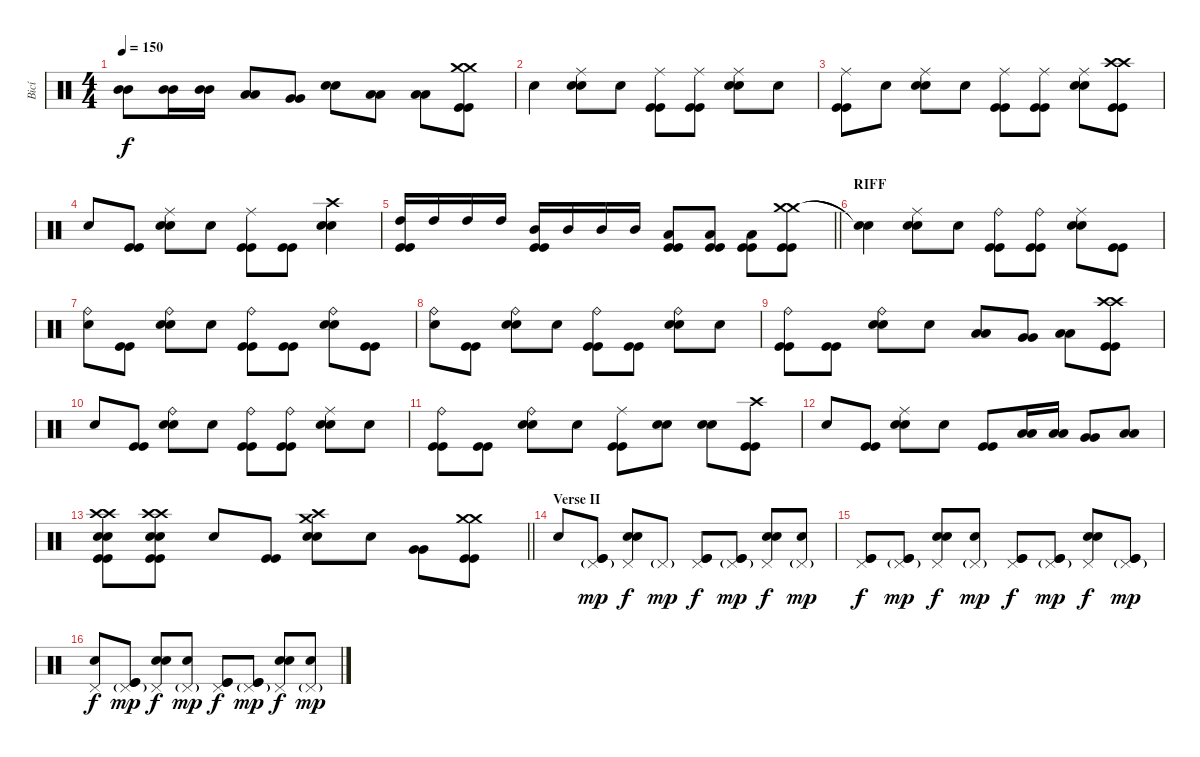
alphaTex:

\track ("Bicí" "Bicí") {instrument percussion}
\staff {score}
\articulation defaults
\ts (4 4)
\tempo 150
\clef neutral
\ks c
("Mid Tom (hit)" "Mid Tom (hit)").8{dy f} ("Mid Tom (hit)" "Mid Tom (hit)").16 ("Mid Tom (hit)" "Mid Tom (hit)").16 ("Low Tom (hit)" "Low Tom (hit)").8 ("Very Low Tom (hit)" "Very Low Tom (hit)").8 ("Electric Snare (hit)" "Electric Snare (hit)").8 ("Low Floor Tom (hit)" "Low Floor Tom (hit)").8 ("Low Floor Tom (hit)" "Low Floor Tom (hit)").8 ("Crash medium (hit)" "Crash medium (hit)" "Kick (hit)" "Kick (hit)").8 |
"Snare (hit)".4 ("Ride (middle)" "Electric Snare (hit)" "Electric Snare (hit)").8 "Snare (hit)".8 ("Ride (middle)" "Kick (hit)" "Kick (hit)").8 ("Ride (middle)" "Kick (hit)" "Kick (hit)").8 ("Ride (middle)" "Electric Snare (hit)" "Electric Snare (hit)").8 "Snare (hit)".8 |
("Ride (middle)" "Kick (hit)" "Kick (hit)").8 "Snare (hit)".8 ("Ride (middle)" "Electric Snare (hit)" "Electric Snare (hit)").8 "Snare (hit)".8 ("Ride (middle)" "Kick (hit)" "Kick (hit)").8 ("Ride (middle)" "Kick (hit)" "Kick (hit)").8 ("Ride (middle)" "Electric Snare (hit)" "Electric Snare (hit)").8 ("Crash high (hit)" "Crash high (hit)" "Kick (hit)" "Kick (hit)").8 |
"Snare (hit)".8 ("Kick (hit)" "Kick (hit)").8 ("Ride (middle)" "Electric Snare (hit)" "Electric Snare (hit)").8 "Snare (hit)".8 ("Ride (middle)" "Kick (hit)" "Kick (hit)").8 ("Kick (hit)" "Kick (hit)").8 ("Crash high (hit)" "Electric Snare (hit)" "Electric Snare (hit)").4 |
\barLineRight lightlight
("High Tom (hit)" "Kick (hit)" "Kick (hit)").16 "High Tom (hit)".16 "High Tom (hit)".16 "High Tom (hit)".16 ("Mid Tom (hit)" "Kick (hit)" "Kick (hit)").16 "Mid Tom (hit)".16 "Mid Tom (hit)".16 "Mid Tom (hit)".16 ("Low Tom (hit)" "Kick (hit)" "Kick (hit)").8 ("Low Tom (hit)" "Kick (hit)" "Kick (hit)").8 ("Low Tom (hit)" "Kick (hit)" "Kick (hit)").8 ("Crash medium (hit)" "Crash medium (hit)" "Kick (hit)" "Kick (hit)").8 |
\section ("" "RIFF")
("Snare (hit)"{t} "Snare (hit)"{t}).4 ("Ride (middle)" "Electric Snare (hit)" "Electric Snare (hit)").8 "Snare (hit)".8 ("Ride (bell)" "Kick (hit)" "Kick (hit)").8 ("Ride (bell)" "Kick (hit)" "Kick (hit)").8 ("Ride (middle)" "Electric Snare (hit)" "Electric Snare (hit)").8 ("Kick (hit)" "Kick (hit)").8 |
("Ride (bell)" "Snare (hit)").8 ("Kick (hit)" "Kick (hit)").8 ("Ride (bell)" "Electric Snare (hit)" "Electric Snare (hit)").8 "Snare (hit)".8 ("Ride (bell)" "Kick (hit)" "Kick (hit)").8 ("Kick (hit)" "Kick (hit)").8 ("Ride (bell)" "Electric Snare (hit)" "Electric Snare (hit)").8 ("Kick (hit)" "Kick (hit)").8 |
("Ride (bell)" "Snare (hit)").8 ("Kick (hit)" "Kick (hit)").8 ("Ride (bell)" "Electric Snare (hit)" "Electric Snare (hit)").8 "Snare (hit)".8 ("Ride (bell)" "Kick (hit)" "Kick (hit)").8 ("Kick (hit)" "Kick (hit)").8 ("Ride (bell)" "Electric Snare (hit)" "Electric Snare (hit)").8 "Snare (hit)".8 |
("Ride (bell)" "Kick (hit)" "Kick (hit)").8 ("Kick (hit)" "Kick (hit)").8 ("Ride (bell)" "Electric Snare (hit)" "Electric Snare (hit)").8 "Snare (hit)".8 ("Low Tom (hit)" "Low Tom (hit)").8 ("Very Low Tom (hit)" "Very Low Tom (hit)").8 ("Low Floor Tom (hit)" "Low Floor Tom (hit)").8 ("Crash high (hit)" "Crash high (hit)" "Kick (hit)" "Kick (hit)").8 |
"Snare (hit)".8 ("Kick (hit)" "Kick (hit)").8 ("Ride (bell)" "Electric Snare (hit)" "Electric Snare (hit)").8 "Snare (hit)".8 ("Ride (bell)" "Kick (hit)" "Kick (hit)").8 ("Ride (bell)" "Kick (hit)" "Kick (hit)").8 ("Ride (middle)" "Electric Snare (hit)" "Electric Snare (hit)").8 "Snare (hit)".8 |
("Ride (bell)" "Kick (hit)" "Kick (hit)").8 ("Kick (hit)" "Kick (hit)").8 ("Ride (bell)" "Electric Snare (hit)" "Electric Snare (hit)").8 "Snare (hit)".8 ("Ride (middle)" "Kick (hit)" "Kick (hit)").8 ("Electric Snare (hit)" "Electric Snare (hit)").8 ("Electric Snare (hit)" "Electric Snare (hit)").8 ("Crash high (hit)" "Kick (hit)" "Kick (hit)").8 |
"Snare (hit)".8 ("Kick (hit)" "Kick (hit)").8 ("Ride (middle)" "Electric Snare (hit)" "Electric Snare (hit)").8 "Snare (hit)".8 ("Kick (hit)" "Kick (hit)").8 ("Low Tom (hit)" "Low Tom (hit)").16 ("Low Tom (hit)" "Low Tom (hit)").16 ("Very Low Tom (hit)" "Very Low Tom (hit)").8 ("Low Floor Tom (hit)" "Low Floor Tom (hit)").8 |
\barLineRight lightlight
("Crash high (hit)" "Crash high (hit)" "Electric Snare (hit)" "Electric Snare (hit)" "Kick (hit)" "Kick (hit)").8 ("Crash high (hit)" "Crash high (hit)" "Electric Snare (hit)" "Electric Snare (hit)" "Kick (hit)" "Kick (hit)").8 "Snare (hit)".8 ("Kick (hit)" "Kick (hit)").8 ("Crash high (hit)" "Crash medium (hit)" "Electric Snare (hit)" "Electric Snare (hit)").8 "Snare (hit)".8 ("Very Low Tom (hit)" "Very Low Tom (hit)").8 ("Crash medium (hit)" "Crash medium (hit)" "Kick (hit)" "Kick (hit)").8 |
\section ("" "Verse II")
"Snare (hit)".8 ("Pedal Hi-Hat (hit)"{g} "Kick (hit)" "Kick (hit)").8{dy mp} ("Pedal Hi-Hat (hit)" "Electric Snare (hit)" "Electric Snare (hit)").8{dy f} "Pedal Hi-Hat (hit)"{g}.8{dy mp} ("Pedal Hi-Hat (hit)" "Kick (hit)" "Kick (hit)").8{dy f} ("Pedal Hi-Hat (hit)"{g} "Kick (hit)" "Kick (hit)").8{dy mp} ("Pedal Hi-Hat (hit)" "Electric Snare (hit)" "Electric Snare (hit)").8{dy f} ("Pedal Hi-Hat (hit)"{g} "Snare (hit)").8{dy mp} |
("Pedal Hi-Hat (hit)" "Kick (hit)" "Kick (hit)").8{dy f} ("Pedal Hi-Hat (hit)"{g} "Kick (hit)" "Kick (hit)").8{dy mp} ("Pedal Hi-Hat (hit)" "Electric Snare (hit)" "Electric Snare (hit)").8{dy f} ("Pedal Hi-Hat (hit)"{g} "Snare (hit)").8{dy mp} ("Pedal Hi-Hat (hit)" "Kick (hit)" "Kick (hit)").8{dy f} ("Pedal Hi-Hat (hit)"{g} "Kick (hit)" "Kick (hit)").8{dy mp} ("Pedal Hi-Hat (hit)" "Electric Snare (hit)" "Electric Snare (hit)").8{dy f} ("Pedal Hi-Hat (hit)"{g} "Kick (hit)" "Kick (hit)").8{dy mp} |
("Pedal Hi-Hat (hit)" "Snare (hit)").8{dy f} ("Pedal Hi-Hat (hit)"{g} "Kick (hit)" "Kick (hit)").8{dy mp} ("Pedal Hi-Hat (hit)" "Electric Snare (hit)" "Electric Snare (hit)").8{dy f} ("Pedal Hi-Hat (hit)"{g} "Snare (hit)").8{dy mp} ("Pedal Hi-Hat (hit)" "Kick (hit)" "Kick (hit)").8{dy f} ("Pedal Hi-Hat (hit)"{g} "Kick (hit)" "Kick (hit)").8{dy mp} ("Pedal Hi-Hat (hit)" "Electric Snare (hit)" "Electric Snare (hit)").8{dy f} ("Pedal Hi-Hat (hit)"{g} "Snare (hit)").8{dy mp}
